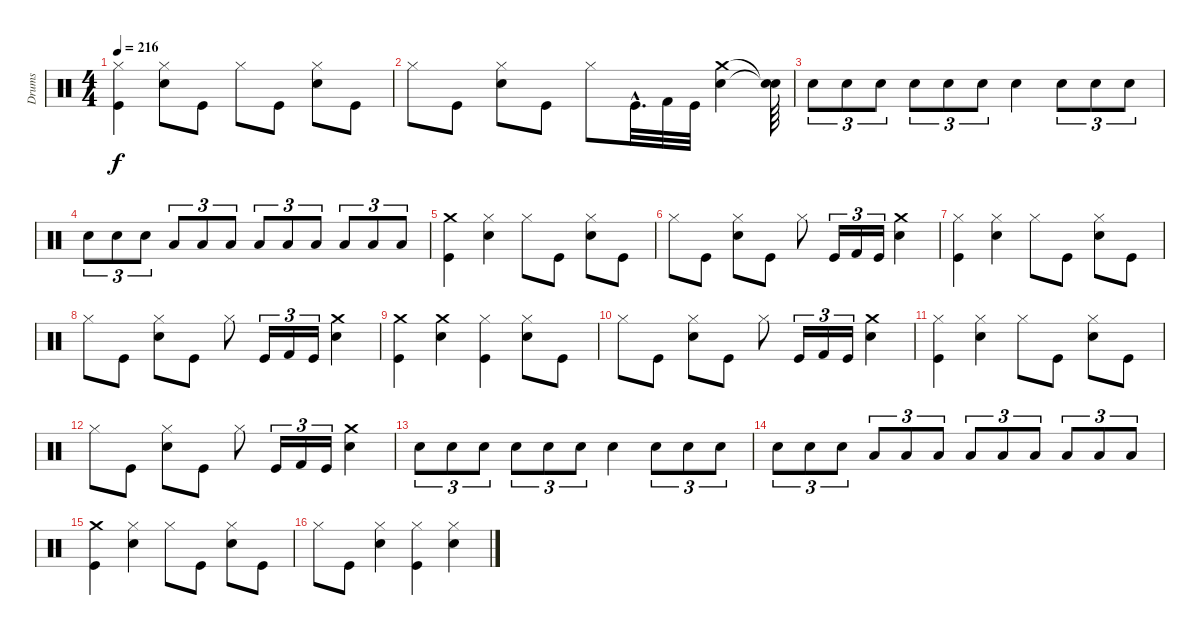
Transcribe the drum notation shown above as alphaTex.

\track ("Drums" "Drums") {instrument percussion}
\staff {score}
\articulation defaults
\ts (4 4)
\tempo 216
\clef neutral
\ks c
("Hi-Hat (closed)" "Kick (hit)").4{dy f} ("Snare (hit) 2" "Hi-Hat (closed)").8 "Kick (hit)".8 "Hi-Hat (closed)".8 "Kick (hit)".8 ("Snare (hit) 2" "Hi-Hat (closed)").8 "Kick (hit)".8 |
"Hi-Hat (closed)".8 "Kick (hit)".8 ("Snare (hit) 2" "Hi-Hat (closed)").8 "Kick (hit)".8 "Hi-Hat (closed)".8 "Kick (hit)"{hac}.32{d} "Kick (hit) 2".32 "Kick (hit)".32 ("Crash medium (hit)" "Snare (hit) 2").4 ("Snare (hit)"{t} "Snare (hit)"{t}).64 |
"Snare (hit) 2".8{tu (3 2)} "Snare (hit) 2".8{tu (3 2)} "Snare (hit) 2".8{tu (3 2)} "Snare (hit) 2".8{tu (3 2)} "Snare (hit) 2".8{tu (3 2)} "Snare (hit) 2".8{tu (3 2)} "Snare (hit) 2".4 "Snare (hit) 2".8{tu (3 2)} "Snare (hit) 2".8{tu (3 2)} "Snare (hit) 2".8{tu (3 2)} |
"Snare (hit) 2".8{tu (3 2)} "Snare (hit) 2".8{tu (3 2)} "Snare (hit) 2".8{tu (3 2)} "Low Tom (hit)".8{tu (3 2)} "Low Tom (hit)".8{tu (3 2)} "Low Tom (hit)".8{tu (3 2)} "Low Tom (hit)".8{tu (3 2)} "Low Tom (hit)".8{tu (3 2)} "Low Tom (hit)".8{tu (3 2)} "Low Tom (hit)".8{tu (3 2)} "Low Tom (hit)".8{tu (3 2)} "Low Tom (hit)".8{tu (3 2)} |
("Crash medium (hit)" "Kick (hit)").4 ("Hi-Hat (closed)" "Snare (hit) 2").4 "Hi-Hat (closed)".8 "Kick (hit)".8 ("Snare (hit) 2" "Hi-Hat (closed)").8 "Kick (hit)".8 |
"Hi-Hat (closed)".8 "Kick (hit)".8 ("Snare (hit) 2" "Hi-Hat (closed)").8 "Kick (hit)".8 "Hi-Hat (closed)".8 "Kick (hit)".16{tu (3 2)} "Kick (hit) 2".16{tu (3 2)} "Kick (hit)".16{tu (3 2)} ("Crash medium (hit)" "Snare (hit) 2").4 |
("Hi-Hat (closed)" "Kick (hit)").4 ("Snare (hit) 2" "Hi-Hat (closed)").4 "Hi-Hat (closed)".8 "Kick (hit)".8 ("Snare (hit) 2" "Hi-Hat (closed)").8 "Kick (hit)".8 |
"Hi-Hat (closed)".8 "Kick (hit)".8 ("Snare (hit) 2" "Hi-Hat (closed)").8 "Kick (hit)".8 "Hi-Hat (closed)".8 "Kick (hit)".16{tu (3 2)} "Kick (hit) 2".16{tu (3 2)} "Kick (hit)".16{tu (3 2)} ("Crash medium (hit)" "Snare (hit) 2").4 |
("Kick (hit)" "Crash medium (hit)").4 ("Snare (hit) 2" "Crash medium (hit)").4 ("Hi-Hat (closed)" "Kick (hit)").4 ("Snare (hit) 2" "Hi-Hat (closed)").8 "Kick (hit)".8 |
"Hi-Hat (closed)".8 "Kick (hit)".8 ("Snare (hit) 2" "Hi-Hat (closed)").8 "Kick (hit)".8 "Hi-Hat (closed)".8 "Kick (hit)".16{tu (3 2)} "Kick (hit) 2".16{tu (3 2)} "Kick (hit)".16{tu (3 2)} ("Crash medium (hit)" "Snare (hit) 2").4 |
("Hi-Hat (closed)" "Kick (hit)").4 ("Snare (hit) 2" "Hi-Hat (closed)").4 "Hi-Hat (closed)".8 "Kick (hit)".8 ("Snare (hit) 2" "Hi-Hat (closed)").8 "Kick (hit)".8 |
"Hi-Hat (closed)".8 "Kick (hit)".8 ("Snare (hit) 2" "Hi-Hat (closed)").8 "Kick (hit)".8 "Hi-Hat (closed)".8 "Kick (hit)".16{tu (3 2)} "Kick (hit) 2".16{tu (3 2)} "Kick (hit)".16{tu (3 2)} ("Crash medium (hit)" "Snare (hit) 2").4 |
"Snare (hit) 2".8{tu (3 2)} "Snare (hit) 2".8{tu (3 2)} "Snare (hit) 2".8{tu (3 2)} "Snare (hit) 2".8{tu (3 2)} "Snare (hit) 2".8{tu (3 2)} "Snare (hit) 2".8{tu (3 2)} "Snare (hit) 2".4 "Snare (hit) 2".8{tu (3 2)} "Snare (hit) 2".8{tu (3 2)} "Snare (hit) 2".8{tu (3 2)} |
"Snare (hit) 2".8{tu (3 2)} "Snare (hit) 2".8{tu (3 2)} "Snare (hit) 2".8{tu (3 2)} "Low Tom (hit)".8{tu (3 2)} "Low Tom (hit)".8{tu (3 2)} "Low Tom (hit)".8{tu (3 2)} "Low Tom (hit)".8{tu (3 2)} "Low Tom (hit)".8{tu (3 2)} "Low Tom (hit)".8{tu (3 2)} "Low Tom (hit)".8{tu (3 2)} "Low Tom (hit)".8{tu (3 2)} "Low Tom (hit)".8{tu (3 2)} |
("Crash medium (hit)" "Kick (hit)").4 ("Hi-Hat (closed)" "Snare (hit) 2").4 "Hi-Hat (closed)".8 "Kick (hit)".8 ("Snare (hit) 2" "Hi-Hat (closed)").8 "Kick (hit)".8 |
"Hi-Hat (closed)".8 "Kick (hit)".8 ("Snare (hit) 2" "Hi-Hat (closed)").4 ("Hi-Hat (closed)" "Kick (hit)").4 ("Snare (hit) 2" "Hi-Hat (closed)").4
